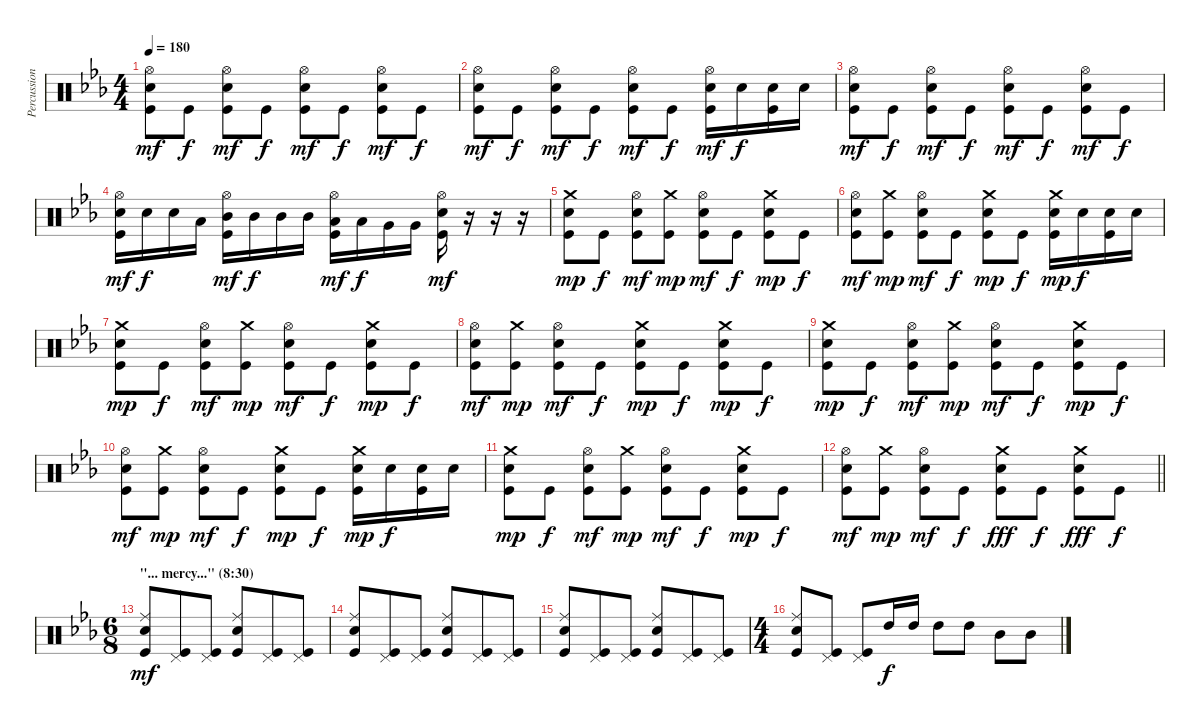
\track ("Percussion" "Percussion") {instrument percussion}
\staff {score}
\articulation defaults
\ts (4 4)
\tempo 180
\clef neutral
\ks cminor
("Hi-Hat (open)" "Snare (hit) 2" "Kick (hit)").8{dy mf} "Kick (hit)".8{dy f} ("Hi-Hat (open)" "Snare (hit) 2" "Kick (hit)").8{dy mf} "Kick (hit)".8{dy f} ("Hi-Hat (open)" "Snare (hit) 2" "Kick (hit)").8{dy mf} "Kick (hit)".8{dy f} ("Hi-Hat (open)" "Snare (hit) 2" "Kick (hit)").8{dy mf} "Kick (hit)".8{dy f} |
("Hi-Hat (open)" "Snare (hit) 2" "Kick (hit)").8{dy mf} "Kick (hit)".8{dy f} ("Hi-Hat (open)" "Snare (hit) 2" "Kick (hit)").8{dy mf} "Kick (hit)".8{dy f} ("Hi-Hat (open)" "Snare (hit) 2" "Kick (hit)").8{dy mf} "Kick (hit)".8{dy f} ("Hi-Hat (open)" "Snare (hit) 2" "Kick (hit)").16{dy mf} "Snare (hit) 2".16{dy f} ("Snare (hit) 2" "Kick (hit)").16 "Snare (hit) 2".16 |
("Hi-Hat (open)" "Snare (hit) 2" "Kick (hit)").8{dy mf} "Kick (hit)".8{dy f} ("Hi-Hat (open)" "Snare (hit) 2" "Kick (hit)").8{dy mf} "Kick (hit)".8{dy f} ("Hi-Hat (open)" "Snare (hit) 2" "Kick (hit)").8{dy mf} "Kick (hit)".8{dy f} ("Hi-Hat (open)" "Snare (hit) 2" "Kick (hit)").8{dy mf} "Kick (hit)".8{dy f} |
("Hi-Hat (open)" "Snare (hit) 2" "Kick (hit)").16{dy mf} "Snare (hit) 2".16{dy f} "Snare (hit) 2".16 "Low Floor Tom (hit)".16 ("Hi-Hat (open)" "Mid Tom (hit)" "Kick (hit)").16{dy mf} "Mid Tom (hit)".16{dy f} "Mid Tom (hit)".16 "Mid Tom (hit)".16 ("Hi-Hat (open)" "Low Tom (hit)" "Kick (hit)").16{dy mf} "Low Tom (hit)".16{dy f} "Very Low Tom (hit)".16 "Very Low Tom (hit)".16 ("Hi-Hat (open)" "Snare (hit) 2" "Kick (hit)").16{dy mf} r.16 r.16 r.16 |
("Crash medium (hit)" "Snare (hit) 2" "Kick (hit)").8{dy mp} "Kick (hit)".8{dy f} ("Hi-Hat (open)" "Snare (hit) 2" "Kick (hit)").8{dy mf} ("Crash medium (hit)" "Kick (hit)").8{dy mp} ("Hi-Hat (open)" "Snare (hit) 2" "Kick (hit)").8{dy mf} "Kick (hit)".8{dy f} ("Crash medium (hit)" "Snare (hit) 2" "Kick (hit)").8{dy mp} "Kick (hit)".8{dy f} |
("Hi-Hat (open)" "Snare (hit) 2" "Kick (hit)").8{dy mf} ("Crash medium (hit)" "Kick (hit)").8{dy mp} ("Hi-Hat (open)" "Snare (hit) 2" "Kick (hit)").8{dy mf} "Kick (hit)".8{dy f} ("Crash medium (hit)" "Snare (hit) 2" "Kick (hit)").8{dy mp} "Kick (hit)".8{dy f} ("Crash medium (hit)" "Snare (hit) 2" "Kick (hit)").16{dy mp} "Snare (hit) 2".16{dy f} ("Snare (hit) 2" "Kick (hit)").16 "Snare (hit) 2".16 |
("Crash medium (hit)" "Snare (hit) 2" "Kick (hit)").8{dy mp} "Kick (hit)".8{dy f} ("Hi-Hat (open)" "Snare (hit) 2" "Kick (hit)").8{dy mf} ("Crash medium (hit)" "Kick (hit)").8{dy mp} ("Hi-Hat (open)" "Snare (hit) 2" "Kick (hit)").8{dy mf} "Kick (hit)".8{dy f} ("Crash medium (hit)" "Snare (hit) 2" "Kick (hit)").8{dy mp} "Kick (hit)".8{dy f} |
("Hi-Hat (open)" "Snare (hit) 2" "Kick (hit)").8{dy mf} ("Crash medium (hit)" "Kick (hit)").8{dy mp} ("Hi-Hat (open)" "Snare (hit) 2" "Kick (hit)").8{dy mf} "Kick (hit)".8{dy f} ("Crash medium (hit)" "Snare (hit) 2" "Kick (hit)").8{dy mp} "Kick (hit)".8{dy f} ("Crash medium (hit)" "Snare (hit) 2" "Kick (hit)").8{dy mp} "Kick (hit)".8{dy f} |
("Crash medium (hit)" "Snare (hit) 2" "Kick (hit)").8{dy mp} "Kick (hit)".8{dy f} ("Hi-Hat (open)" "Snare (hit) 2" "Kick (hit)").8{dy mf} ("Crash medium (hit)" "Kick (hit)").8{dy mp} ("Hi-Hat (open)" "Snare (hit) 2" "Kick (hit)").8{dy mf} "Kick (hit)".8{dy f} ("Crash medium (hit)" "Snare (hit) 2" "Kick (hit)").8{dy mp} "Kick (hit)".8{dy f} |
("Hi-Hat (open)" "Snare (hit) 2" "Kick (hit)").8{dy mf} ("Crash medium (hit)" "Kick (hit)").8{dy mp} ("Hi-Hat (open)" "Snare (hit) 2" "Kick (hit)").8{dy mf} "Kick (hit)".8{dy f} ("Crash medium (hit)" "Snare (hit) 2" "Kick (hit)").8{dy mp} "Kick (hit)".8{dy f} ("Crash medium (hit)" "Snare (hit) 2" "Kick (hit)").16{dy mp} "Snare (hit) 2".16{dy f} ("Snare (hit) 2" "Kick (hit)").16 "Snare (hit) 2".16 |
("Crash medium (hit)" "Snare (hit) 2" "Kick (hit)").8{dy mp} "Kick (hit)".8{dy f} ("Hi-Hat (open)" "Snare (hit) 2" "Kick (hit)").8{dy mf} ("Crash medium (hit)" "Kick (hit)").8{dy mp} ("Hi-Hat (open)" "Snare (hit) 2" "Kick (hit)").8{dy mf} "Kick (hit)".8{dy f} ("Crash medium (hit)" "Snare (hit) 2" "Kick (hit)").8{dy mp} "Kick (hit)".8{dy f} |
\barLineRight lightlight
("Hi-Hat (open)" "Snare (hit) 2" "Kick (hit)").8{dy mf} ("Crash medium (hit)" "Kick (hit)").8{dy mp} ("Hi-Hat (open)" "Snare (hit) 2" "Kick (hit)").8{dy mf} "Kick (hit)".8{dy f} ("Crash medium (hit)" "Snare (hit) 2" "Kick (hit)").8{dy fff} "Kick (hit)".8{dy f} ("Crash medium (hit)" "Snare (hit) 2" "Kick (hit)").8{dy fff} "Kick (hit)".8{dy f} |
\ts (6 8)
\section ("" "\"... mercy...\" (8:30)")
("Ride (middle)" "Snare (hit) 2" "Kick (hit)").8{dy mf} ("Pedal Hi-Hat (hit)" "Kick (hit)").8 ("Pedal Hi-Hat (hit)" "Kick (hit)").8 ("Ride (middle)" "Snare (hit) 2" "Kick (hit)").8 ("Pedal Hi-Hat (hit)" "Kick (hit)").8 ("Pedal Hi-Hat (hit)" "Kick (hit)").8 |
("Ride (middle)" "Snare (hit) 2" "Kick (hit)").8 ("Pedal Hi-Hat (hit)" "Kick (hit)").8 ("Pedal Hi-Hat (hit)" "Kick (hit)").8 ("Ride (middle)" "Snare (hit) 2" "Kick (hit)").8 ("Pedal Hi-Hat (hit)" "Kick (hit)").8 ("Pedal Hi-Hat (hit)" "Kick (hit)").8 |
("Ride (middle)" "Snare (hit) 2" "Kick (hit)").8 ("Pedal Hi-Hat (hit)" "Kick (hit)").8 ("Pedal Hi-Hat (hit)" "Kick (hit)").8 ("Ride (middle)" "Snare (hit) 2" "Kick (hit)").8 ("Pedal Hi-Hat (hit)" "Kick (hit)").8 ("Pedal Hi-Hat (hit)" "Kick (hit)").8 |
\ts (4 4)
("Ride (middle)" "Snare (hit) 2" "Kick (hit)").8 ("Pedal Hi-Hat (hit)" "Kick (hit)").8 ("Pedal Hi-Hat (hit)" "Kick (hit)").8 "High Tom (hit)".16{dy f} "High Tom (hit)".16 "High Tom (hit)".8 "High Tom (hit)".8 "Mid Tom (hit)".8 "Mid Tom (hit)".8
